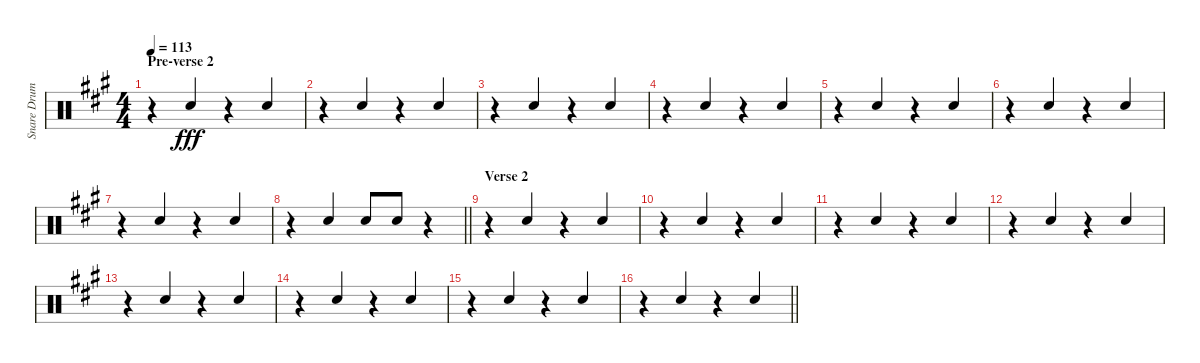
\track ("Snare Drum" "Snare Drum") {instrument percussion}
\staff {score}
\articulation defaults
\ts (4 4)
\section ("" "Pre-verse 2")
\tempo 113
\clef neutral
\ks f#minor
r.4{dy fff} "Electric Snare (hit)".4{beam Up} r.4 "Electric Snare (hit)".4{beam Up} |
r.4 "Electric Snare (hit)".4{beam Up} r.4 "Electric Snare (hit)".4{beam Up} |
r.4 "Electric Snare (hit)".4{beam Up} r.4 "Electric Snare (hit)".4{beam Up} |
r.4 "Electric Snare (hit)".4{beam Up} r.4 "Electric Snare (hit)".4{beam Up} |
r.4 "Electric Snare (hit)".4{beam Up} r.4 "Electric Snare (hit)".4{beam Up} |
r.4 "Electric Snare (hit)".4{beam Up} r.4 "Electric Snare (hit)".4{beam Up} |
r.4 "Electric Snare (hit)".4{beam Up} r.4 "Electric Snare (hit)".4{beam Up} |
\barLineRight lightlight
r.4 "Electric Snare (hit)".4{beam Up} "Electric Snare (hit)".8{beam Up} "Electric Snare (hit)".8{beam Up} r.4 |
\section ("" "Verse 2")
r.4 "Electric Snare (hit)".4{beam Up} r.4 "Electric Snare (hit)".4{beam Up} |
r.4 "Electric Snare (hit)".4{beam Up} r.4 "Electric Snare (hit)".4{beam Up} |
r.4 "Electric Snare (hit)".4{beam Up} r.4 "Electric Snare (hit)".4{beam Up} |
r.4 "Electric Snare (hit)".4{beam Up} r.4 "Electric Snare (hit)".4{beam Up} |
r.4 "Electric Snare (hit)".4{beam Up} r.4 "Electric Snare (hit)".4{beam Up} |
r.4 "Electric Snare (hit)".4{beam Up} r.4 "Electric Snare (hit)".4{beam Up} |
r.4 "Electric Snare (hit)".4{beam Up} r.4 "Electric Snare (hit)".4{beam Up} |
\barLineRight lightlight
r.4 "Electric Snare (hit)".4{beam Up} r.4 "Electric Snare (hit)".4{beam Up}
